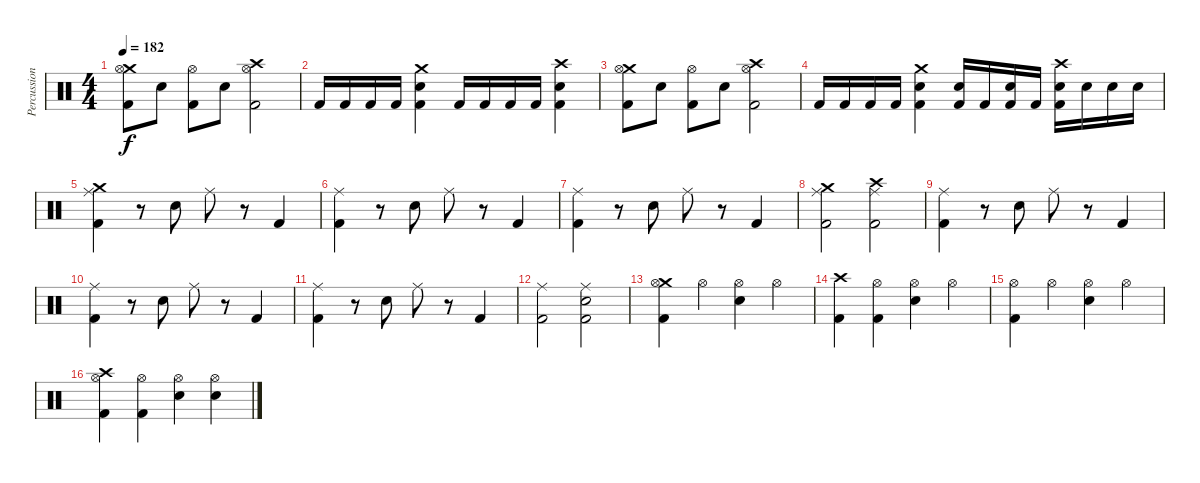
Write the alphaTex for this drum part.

\track ("Percussion" "Percussion") {instrument percussion}
\staff {score}
\articulation defaults
\ts (4 4)
\tempo 182
\clef neutral
\ks c
("Crash medium (hit)" "Hi-Hat (open)" "Kick (hit) 2").8{dy f} "Electric Snare (hit)".8 ("Hi-Hat (open)" "Kick (hit) 2").8 "Electric Snare (hit)".8 ("Crash high (hit)" "Hi-Hat (open)" "Kick (hit) 2").2 |
"Kick (hit) 2".16 "Kick (hit) 2".16 "Kick (hit) 2".16 "Kick (hit) 2".16 ("Crash medium (hit)" "Electric Snare (hit)" "Kick (hit) 2").4 "Kick (hit) 2".16 "Kick (hit) 2".16 "Kick (hit) 2".16 "Kick (hit) 2".16 ("Crash high (hit)" "Electric Snare (hit)" "Kick (hit) 2").4 |
("Crash medium (hit)" "Hi-Hat (open)" "Kick (hit) 2").8 "Electric Snare (hit)".8 ("Hi-Hat (open)" "Kick (hit) 2").8 "Electric Snare (hit)".8 ("Crash high (hit)" "Hi-Hat (open)" "Kick (hit) 2").2 |
"Kick (hit) 2".16 "Kick (hit) 2".16 "Kick (hit) 2".16 "Kick (hit) 2".16 ("Crash medium (hit)" "Electric Snare (hit)" "Kick (hit) 2").4 ("Electric Snare (hit)" "Kick (hit) 2").16 "Kick (hit) 2".16 ("Electric Snare (hit)" "Kick (hit) 2").16 "Kick (hit) 2".16 ("Crash high (hit)" "Electric Snare (hit)" "Kick (hit) 2").16 "Electric Snare (hit)".16 "Electric Snare (hit)".16 "Electric Snare (hit)".16 |
("Crash medium (hit)" "Ride (middle)" "Kick (hit) 2").4 r.8 "Electric Snare (hit)".8 "Ride (middle)".8 r.8 "Kick (hit) 2".4 |
("Ride (middle)" "Kick (hit) 2").4 r.8 "Electric Snare (hit)".8 "Ride (middle)".8 r.8 "Kick (hit) 2".4 |
("Ride (middle)" "Kick (hit) 2").4 r.8 "Electric Snare (hit)".8 "Ride (middle)".8 r.8 "Kick (hit) 2".4 |
("Crash medium (hit)" "Ride (middle)" "Kick (hit) 2").2 ("Crash high (hit)" "Ride (middle)" "Kick (hit) 2").2 |
("Ride (middle)" "Kick (hit) 2").4 r.8 "Electric Snare (hit)".8 "Ride (middle)".8 r.8 "Kick (hit) 2".4 |
("Ride (middle)" "Kick (hit) 2").4 r.8 "Electric Snare (hit)".8 "Ride (middle)".8 r.8 "Kick (hit) 2".4 |
("Ride (middle)" "Kick (hit) 2").4 r.8 "Electric Snare (hit)".8 "Ride (middle)".8 r.8 "Kick (hit) 2".4 |
("Ride (middle)" "Kick (hit) 2").2 ("Ride (middle)" "Electric Snare (hit)" "Kick (hit) 2").2 |
("Crash medium (hit)" "Hi-Hat (open)" "Kick (hit) 2").4 "Hi-Hat (open)".4 ("Hi-Hat (open)" "Electric Snare (hit)").4 "Hi-Hat (open)".4 |
("Crash high (hit)" "Kick (hit) 2").4 ("Hi-Hat (open)" "Kick (hit) 2").4 ("Hi-Hat (open)" "Electric Snare (hit)").4 "Hi-Hat (open)".4 |
("Hi-Hat (open)" "Kick (hit) 2").4 "Hi-Hat (open)".4 ("Hi-Hat (open)" "Electric Snare (hit)").4 "Hi-Hat (open)".4 |
("Crash high (hit)" "Hi-Hat (open)" "Kick (hit) 2").4 ("Hi-Hat (open)" "Kick (hit) 2").4 ("Hi-Hat (open)" "Electric Snare (hit)").4 ("Hi-Hat (open)" "Electric Snare (hit)").4
